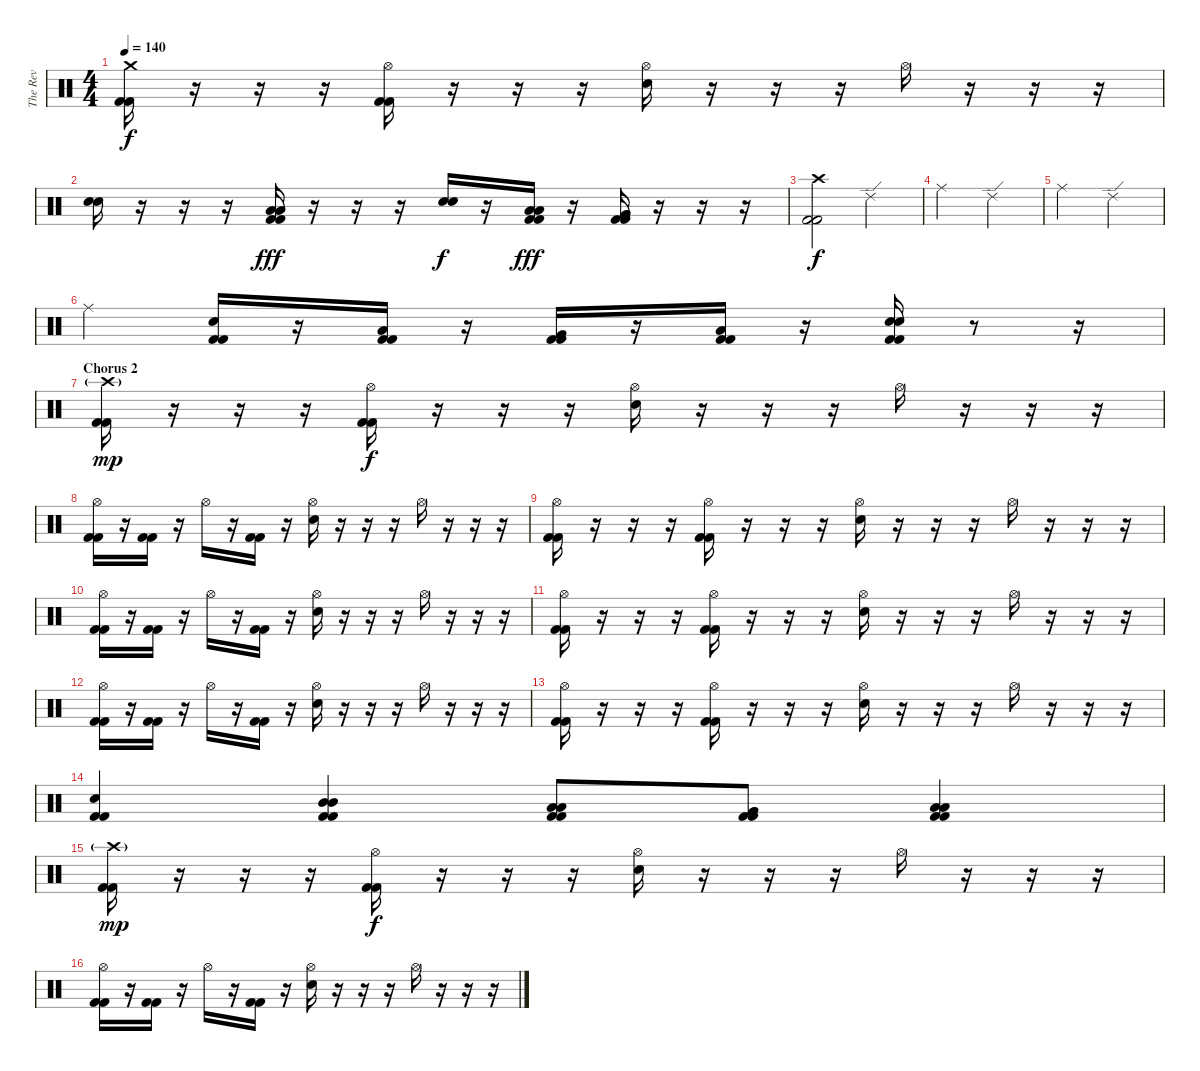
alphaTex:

\track ("The Rev" "The Rev") {instrument percussion}
\staff {score}
\articulation defaults
\ts (4 4)
\tempo 140
\clef neutral
\ks c
("Crash medium (hit)" "Kick (hit) 2" "Kick (hit) 2").16{dy f} r.16 r.16 r.16 ("Hi-Hat (open)" "Kick (hit) 2" "Kick (hit) 2").16 r.16 r.16 r.16 ("Hi-Hat (open)" "Electric Snare (hit)").16 r.16 r.16 r.16 "Hi-Hat (open)".16 r.16 r.16 r.16 |
("Electric Snare (hit)" "Electric Snare (hit)").16 r.16 r.16 r.16 ("Low Tom (hit)" "Low Tom (hit)" "Kick (hit) 2" "Kick (hit) 2").16{dy fff} r.16 r.16 r.16 ("Electric Snare (hit)" "Electric Snare (hit)").16{dy f} r.16 ("Low Tom (hit)" "Low Tom (hit)" "Kick (hit) 2" "Kick (hit) 2").16{dy fff} r.16 ("Very Low Tom (hit)" "Very Low Tom (hit)" "Kick (hit) 2" "Kick (hit) 2").16 r.16 r.16 r.16 |
("Crash high (hit)" "Kick (hit) 2" "Kick (hit) 2").2{dy f} "Ride (edge) 2".2 |
"Ride (middle)".2 "Ride (edge) 2".2 |
"Ride (middle)".2 "Ride (edge) 2".2 |
"Ride (middle)".4 ("Electric Snare (hit)" "Kick (hit) 2" "Kick (hit) 2").16 r.16 ("Low Tom (hit)" "Kick (hit) 2" "Kick (hit) 2").16 r.16 ("Very Low Tom (hit)" "Kick (hit) 2" "Kick (hit) 2").16 r.16 ("Low Floor Tom (hit)" "Kick (hit) 2" "Kick (hit) 2").16 r.16 ("Electric Snare (hit)" "Electric Snare (hit)" "Kick (hit) 2" "Kick (hit) 2").16 r.8 r.16 |
\section ("" "Chorus 2")
("Crash high (hit)"{g} "Kick (hit) 2" "Kick (hit) 2").16{dy mp} r.16 r.16 r.16 ("Hi-Hat (open)" "Kick (hit) 2" "Kick (hit) 2").16{dy f} r.16 r.16 r.16 ("Hi-Hat (open)" "Electric Snare (hit)").16 r.16 r.16 r.16 "Hi-Hat (open)".16 r.16 r.16 r.16 |
("Hi-Hat (open)" "Kick (hit) 2" "Kick (hit) 2").16 r.16 ("Kick (hit) 2" "Kick (hit) 2").16 r.16 "Hi-Hat (open)".16 r.16 ("Kick (hit) 2" "Kick (hit) 2").16 r.16 ("Hi-Hat (open)" "Electric Snare (hit)").16 r.16 r.16 r.16 "Hi-Hat (open)".16 r.16 r.16 r.16 |
("Hi-Hat (open)" "Kick (hit) 2" "Kick (hit) 2").16 r.16 r.16 r.16 ("Hi-Hat (open)" "Kick (hit) 2" "Kick (hit) 2").16 r.16 r.16 r.16 ("Hi-Hat (open)" "Electric Snare (hit)").16 r.16 r.16 r.16 "Hi-Hat (open)".16 r.16 r.16 r.16 |
("Hi-Hat (open)" "Kick (hit) 2" "Kick (hit) 2").16 r.16 ("Kick (hit) 2" "Kick (hit) 2").16 r.16 "Hi-Hat (open)".16 r.16 ("Kick (hit) 2" "Kick (hit) 2").16 r.16 ("Hi-Hat (open)" "Electric Snare (hit)").16 r.16 r.16 r.16 "Hi-Hat (open)".16 r.16 r.16 r.16 |
("Hi-Hat (open)" "Kick (hit) 2" "Kick (hit) 2").16 r.16 r.16 r.16 ("Hi-Hat (open)" "Kick (hit) 2" "Kick (hit) 2").16 r.16 r.16 r.16 ("Hi-Hat (open)" "Electric Snare (hit)").16 r.16 r.16 r.16 "Hi-Hat (open)".16 r.16 r.16 r.16 |
("Hi-Hat (open)" "Kick (hit) 2" "Kick (hit) 2").16 r.16 ("Kick (hit) 2" "Kick (hit) 2").16 r.16 "Hi-Hat (open)".16 r.16 ("Kick (hit) 2" "Kick (hit) 2").16 r.16 ("Hi-Hat (open)" "Electric Snare (hit)").16 r.16 r.16 r.16 "Hi-Hat (open)".16 r.16 r.16 r.16 |
("Hi-Hat (open)" "Kick (hit) 2" "Kick (hit) 2").16 r.16 r.16 r.16 ("Hi-Hat (open)" "Kick (hit) 2" "Kick (hit) 2").16 r.16 r.16 r.16 ("Hi-Hat (open)" "Electric Snare (hit)").16 r.16 r.16 r.16 "Hi-Hat (open)".16 r.16 r.16 r.16 |
("Electric Snare (hit)" "Kick (hit) 2" "Kick (hit) 2").4 ("Mid Tom (hit)" "Mid Tom (hit)" "Kick (hit) 2" "Kick (hit) 2").4 ("Low Tom (hit)" "Low Tom (hit)" "Kick (hit) 2" "Kick (hit) 2").8 ("Very Low Tom (hit)" "Very Low Tom (hit)" "Kick (hit) 2" "Kick (hit) 2").8 ("Low Floor Tom (hit)" "Low Floor Tom (hit)" "Kick (hit) 2" "Kick (hit) 2").4 |
("Crash high (hit)"{g} "Kick (hit) 2" "Kick (hit) 2").16{dy mp} r.16 r.16 r.16 ("Hi-Hat (open)" "Kick (hit) 2" "Kick (hit) 2").16{dy f} r.16 r.16 r.16 ("Hi-Hat (open)" "Electric Snare (hit)").16 r.16 r.16 r.16 "Hi-Hat (open)".16 r.16 r.16 r.16 |
("Hi-Hat (open)" "Kick (hit) 2" "Kick (hit) 2").16 r.16 ("Kick (hit) 2" "Kick (hit) 2").16 r.16 "Hi-Hat (open)".16 r.16 ("Kick (hit) 2" "Kick (hit) 2").16 r.16 ("Hi-Hat (open)" "Electric Snare (hit)").16 r.16 r.16 r.16 "Hi-Hat (open)".16 r.16 r.16 r.16
